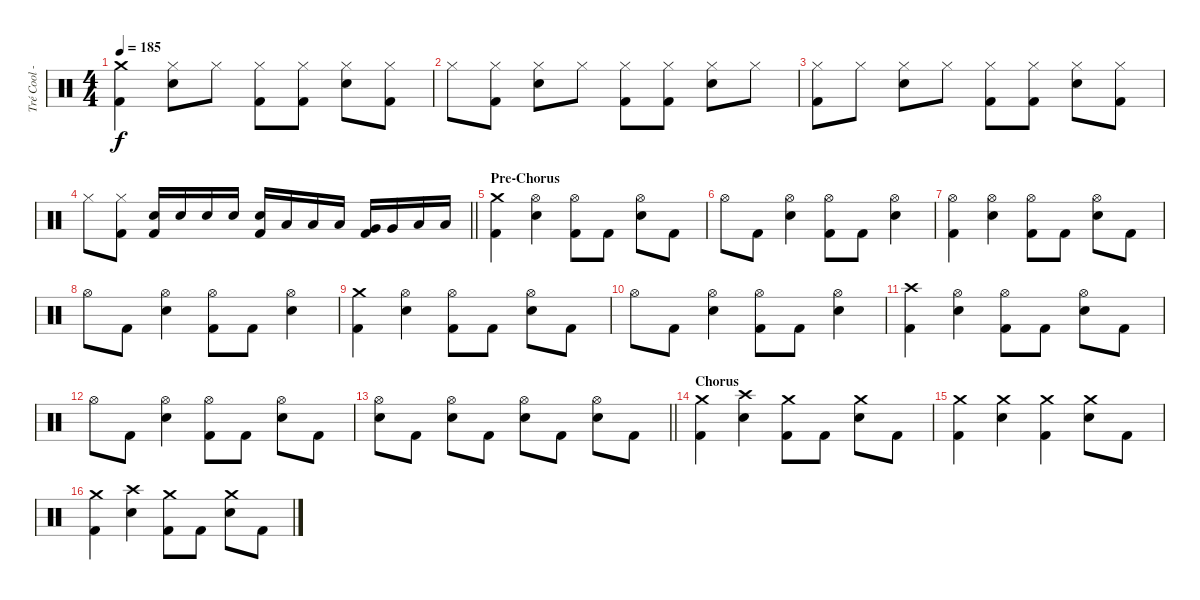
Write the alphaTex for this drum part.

\track ("Tré Cool - Drums" "Tré Cool -") {instrument percussion}
\staff {score}
\articulation defaults
\ts (4 4)
\tempo 185
\clef neutral
\ks c
("Crash medium (hit)" "Kick (hit) 2").4{dy f} ("Hi-Hat (closed)" "Electric Snare (hit)").8 "Hi-Hat (closed)".8 ("Hi-Hat (closed)" "Kick (hit) 2").8 ("Hi-Hat (closed)" "Kick (hit) 2").8 ("Hi-Hat (closed)" "Electric Snare (hit)").8 ("Hi-Hat (closed)" "Kick (hit) 2").8 |
"Hi-Hat (closed)".8 ("Hi-Hat (closed)" "Kick (hit) 2").8 ("Hi-Hat (closed)" "Electric Snare (hit)").8 "Hi-Hat (closed)".8 ("Hi-Hat (closed)" "Kick (hit) 2").8 ("Hi-Hat (closed)" "Kick (hit) 2").8 ("Hi-Hat (closed)" "Electric Snare (hit)").8 "Hi-Hat (closed)".8 |
("Hi-Hat (closed)" "Kick (hit) 2").8 "Hi-Hat (closed)".8 ("Hi-Hat (closed)" "Electric Snare (hit)").8 "Hi-Hat (closed)".8 ("Hi-Hat (closed)" "Kick (hit) 2").8 ("Hi-Hat (closed)" "Kick (hit) 2").8 ("Hi-Hat (closed)" "Electric Snare (hit)").8 ("Hi-Hat (closed)" "Kick (hit) 2").8 |
\barLineRight lightlight "Hi-Hat (closed)".8
("Hi-Hat (closed)" "Kick (hit) 2").8 ("Electric Snare (hit)" "Kick (hit) 2").16 "Electric Snare (hit)".16 "Electric Snare (hit)".16 "Electric Snare (hit)".16 ("Electric Snare (hit)" "Kick (hit) 2").16 "Low Tom (hit)".16 "Low Tom (hit)".16 "Low Tom (hit)".16 ("Very Low Tom (hit)" "Kick (hit) 2").16 "Very Low Tom (hit)".16 "Low Floor Tom (hit)".16 "Low Floor Tom (hit)".16 |
\section ("" "Pre-Chorus")
("Crash medium (hit)" "Kick (hit) 2").4 ("Hi-Hat (open)" "Electric Snare (hit)").4 ("Hi-Hat (open)" "Kick (hit) 2").8 "Kick (hit) 2".8 ("Hi-Hat (open)" "Electric Snare (hit)").8 "Kick (hit) 2".8 |
"Hi-Hat (open)".8 "Kick (hit) 2".8 ("Hi-Hat (open)" "Electric Snare (hit)").4 ("Hi-Hat (open)" "Kick (hit) 2").8 "Kick (hit) 2".8 ("Hi-Hat (open)" "Electric Snare (hit)").4 |
("Hi-Hat (open)" "Kick (hit) 2").4 ("Hi-Hat (open)" "Electric Snare (hit)").4 ("Hi-Hat (open)" "Kick (hit) 2").8 "Kick (hit) 2".8 ("Hi-Hat (open)" "Electric Snare (hit)").8 "Kick (hit) 2".8 |
"Hi-Hat (open)".8 "Kick (hit) 2".8 ("Hi-Hat (open)" "Electric Snare (hit)").4 ("Hi-Hat (open)" "Kick (hit) 2").8 "Kick (hit) 2".8 ("Hi-Hat (open)" "Electric Snare (hit)").4 |
("Crash medium (hit)" "Kick (hit) 2").4 ("Hi-Hat (open)" "Electric Snare (hit)").4 ("Hi-Hat (open)" "Kick (hit) 2").8 "Kick (hit) 2".8 ("Hi-Hat (open)" "Electric Snare (hit)").8 "Kick (hit) 2".8 |
"Hi-Hat (open)".8 "Kick (hit) 2".8 ("Hi-Hat (open)" "Electric Snare (hit)").4 ("Hi-Hat (open)" "Kick (hit) 2").8 "Kick (hit) 2".8 ("Hi-Hat (open)" "Electric Snare (hit)").4 |
("Crash high (hit)" "Kick (hit) 2").4 ("Hi-Hat (open)" "Electric Snare (hit)").4 ("Hi-Hat (open)" "Kick (hit) 2").8 "Kick (hit) 2".8 ("Hi-Hat (open)" "Electric Snare (hit)").8 "Kick (hit) 2".8 |
"Hi-Hat (open)".8 "Kick (hit) 2".8 ("Hi-Hat (open)" "Electric Snare (hit)").4 ("Hi-Hat (open)" "Kick (hit) 2").8 "Kick (hit) 2".8 ("Hi-Hat (open)" "Electric Snare (hit)").8 "Kick (hit) 2".8 |
\barLineRight lightlight
("Hi-Hat (open)" "Electric Snare (hit)").8 "Kick (hit) 2".8 ("Hi-Hat (open)" "Electric Snare (hit)").8 "Kick (hit) 2".8 ("Hi-Hat (open)" "Electric Snare (hit)").8 "Kick (hit) 2".8 ("Hi-Hat (open)" "Electric Snare (hit)").8 "Kick (hit) 2".8 |
\section ("" "Chorus")
("Crash medium (hit)" "Kick (hit) 2").4 ("Crash high (hit)" "Electric Snare (hit)").4 ("Crash medium (hit)" "Kick (hit) 2").8 "Kick (hit) 2".8 ("Crash medium (hit)" "Electric Snare (hit)").8 "Kick (hit) 2".8 |
("Crash medium (hit)" "Kick (hit) 2").4 ("Crash medium (hit)" "Electric Snare (hit)").4 ("Crash medium (hit)" "Kick (hit) 2").4 ("Crash medium (hit)" "Electric Snare (hit)").8 "Kick (hit) 2".8 |
("Crash medium (hit)" "Kick (hit) 2").4 ("Crash high (hit)" "Electric Snare (hit)").4 ("Crash medium (hit)" "Kick (hit) 2").8 "Kick (hit) 2".8 ("Crash medium (hit)" "Electric Snare (hit)").8 "Kick (hit) 2".8
